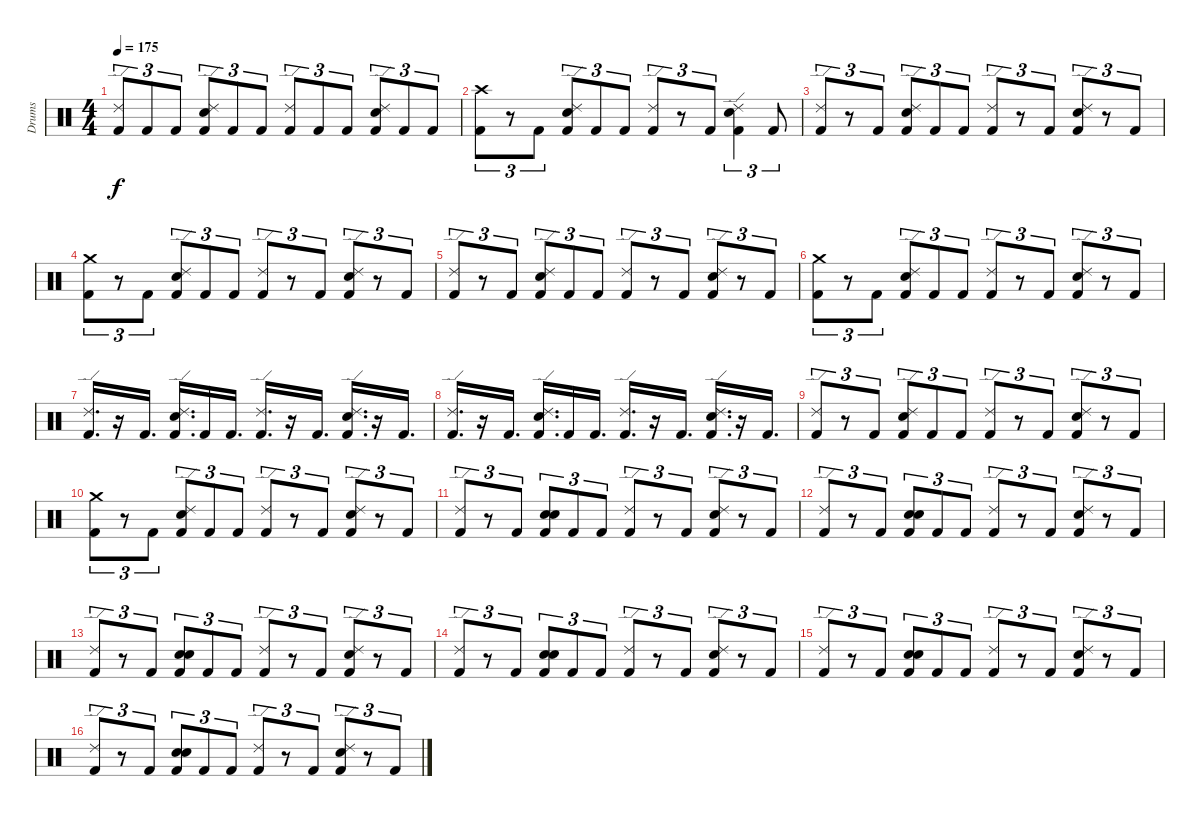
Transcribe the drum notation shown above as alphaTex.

\track ("Drums" "Drums") {instrument percussion}
\staff {score}
\articulation defaults
\ts (4 4)
\tempo 175
\clef neutral
\ks c
("Ride (edge) 2" "Kick (hit) 2").8{tu (3 2) dy f} "Kick (hit) 2".8{tu (3 2)} "Kick (hit) 2".8{tu (3 2)} ("Ride (edge) 2" "Electric Snare (hit)" "Kick (hit) 2").8{tu (3 2)} "Kick (hit) 2".8{tu (3 2)} "Kick (hit) 2".8{tu (3 2)} ("Ride (edge) 2" "Kick (hit) 2").8{tu (3 2)} "Kick (hit) 2".8{tu (3 2)} "Kick (hit) 2".8{tu (3 2)} ("Ride (edge) 2" "Electric Snare (hit)" "Kick (hit) 2").8{tu (3 2)} "Kick (hit) 2".8{tu (3 2)} "Kick (hit) 2".8{tu (3 2)} |
("Crash high (hit)" "Kick (hit) 2").8{tu (3 2)} r.8{tu (3 2)} "Kick (hit) 2".8{tu (3 2)} ("Kick (hit) 2" "Ride (edge) 2" "Electric Snare (hit)").8{tu (3 2)} "Kick (hit) 2".8{tu (3 2)} "Kick (hit) 2".8{tu (3 2)} ("Kick (hit) 2" "Ride (edge) 2").8{tu (3 2)} r.8{tu (3 2)} "Kick (hit) 2".8{tu (3 2)} ("Kick (hit) 2" "Electric Snare (hit)" "Ride (edge) 2").4{tu (3 2)} "Kick (hit) 2".8{tu (3 2)} |
("Ride (edge) 2" "Kick (hit) 2").8{tu (3 2)} r.8{tu (3 2)} "Kick (hit) 2".8{tu (3 2)} ("Electric Snare (hit)" "Ride (edge) 2" "Kick (hit) 2").8{tu (3 2)} "Kick (hit) 2".8{tu (3 2)} "Kick (hit) 2".8{tu (3 2)} ("Ride (edge) 2" "Kick (hit) 2").8{tu (3 2)} r.8{tu (3 2)} "Kick (hit) 2".8{tu (3 2)} ("Electric Snare (hit)" "Ride (edge) 2" "Kick (hit) 2").8{tu (3 2)} r.8{tu (3 2)} "Kick (hit) 2".8{tu (3 2)} |
("Crash medium (hit)" "Kick (hit) 2").8{tu (3 2)} r.8{tu (3 2)} "Kick (hit) 2".8{tu (3 2)} ("Electric Snare (hit)" "Ride (edge) 2" "Kick (hit) 2").8{tu (3 2)} "Kick (hit) 2".8{tu (3 2)} "Kick (hit) 2".8{tu (3 2)} ("Ride (edge) 2" "Kick (hit) 2").8{tu (3 2)} r.8{tu (3 2)} "Kick (hit) 2".8{tu (3 2)} ("Electric Snare (hit)" "Ride (edge) 2" "Kick (hit) 2").8{tu (3 2)} r.8{tu (3 2)} "Kick (hit) 2".8{tu (3 2)} |
("Ride (edge) 2" "Kick (hit) 2").8{tu (3 2)} r.8{tu (3 2)} "Kick (hit) 2".8{tu (3 2)} ("Electric Snare (hit)" "Ride (edge) 2" "Kick (hit) 2").8{tu (3 2)} "Kick (hit) 2".8{tu (3 2)} "Kick (hit) 2".8{tu (3 2)} ("Ride (edge) 2" "Kick (hit) 2").8{tu (3 2)} r.8{tu (3 2)} "Kick (hit) 2".8{tu (3 2)} ("Electric Snare (hit)" "Ride (edge) 2" "Kick (hit) 2").8{tu (3 2)} r.8{tu (3 2)} "Kick (hit) 2".8{tu (3 2)} |
("Crash medium (hit)" "Kick (hit) 2").8{tu (3 2)} r.8{tu (3 2)} "Kick (hit) 2".8{tu (3 2)} ("Electric Snare (hit)" "Ride (edge) 2" "Kick (hit) 2").8{tu (3 2)} "Kick (hit) 2".8{tu (3 2)} "Kick (hit) 2".8{tu (3 2)} ("Ride (edge) 2" "Kick (hit) 2").8{tu (3 2)} r.8{tu (3 2)} "Kick (hit) 2".8{tu (3 2)} ("Electric Snare (hit)" "Ride (edge) 2" "Kick (hit) 2").8{tu (3 2)} r.8{tu (3 2)} "Kick (hit) 2".8{tu (3 2)} |
("Ride (edge) 2" "Kick (hit) 2").16{d} r.16 "Kick (hit) 2".16{d} ("Electric Snare (hit)" "Ride (edge) 2" "Kick (hit) 2").16{d} "Kick (hit) 2".16 "Kick (hit) 2".16{d} ("Ride (edge) 2" "Kick (hit) 2").16{d} r.16 "Kick (hit) 2".16{d} ("Electric Snare (hit)" "Ride (edge) 2" "Kick (hit) 2").16{d} r.16 "Kick (hit) 2".16{d} |
("Ride (edge) 2" "Kick (hit) 2").16{d} r.16 "Kick (hit) 2".16{d} ("Electric Snare (hit)" "Ride (edge) 2" "Kick (hit) 2").16{d} "Kick (hit) 2".16 "Kick (hit) 2".16{d} ("Ride (edge) 2" "Kick (hit) 2").16{d} r.16 "Kick (hit) 2".16{d} ("Electric Snare (hit)" "Ride (edge) 2" "Kick (hit) 2").16{d} r.16 "Kick (hit) 2".16{d} |
("Ride (edge) 2" "Kick (hit) 2").8{tu (3 2)} r.8{tu (3 2)} "Kick (hit) 2".8{tu (3 2)} ("Electric Snare (hit)" "Ride (edge) 2" "Kick (hit) 2").8{tu (3 2)} "Kick (hit) 2".8{tu (3 2)} "Kick (hit) 2".8{tu (3 2)} ("Ride (edge) 2" "Kick (hit) 2").8{tu (3 2)} r.8{tu (3 2)} "Kick (hit) 2".8{tu (3 2)} ("Electric Snare (hit)" "Ride (edge) 2" "Kick (hit) 2").8{tu (3 2)} r.8{tu (3 2)} "Kick (hit) 2".8{tu (3 2)} |
("Crash medium (hit)" "Kick (hit) 2").8{tu (3 2)} r.8{tu (3 2)} "Kick (hit) 2".8{tu (3 2)} ("Electric Snare (hit)" "Ride (edge) 2" "Kick (hit) 2").8{tu (3 2)} "Kick (hit) 2".8{tu (3 2)} "Kick (hit) 2".8{tu (3 2)} ("Ride (edge) 2" "Kick (hit) 2").8{tu (3 2)} r.8{tu (3 2)} "Kick (hit) 2".8{tu (3 2)} ("Electric Snare (hit)" "Ride (edge) 2" "Kick (hit) 2").8{tu (3 2)} r.8{tu (3 2)} "Kick (hit) 2".8{tu (3 2)} |
("Ride (edge) 2" "Kick (hit) 2").8{tu (3 2)} r.8{tu (3 2)} "Kick (hit) 2".8{tu (3 2)} ("Electric Snare (hit)" "Electric Snare (hit)" "Kick (hit) 2").8{tu (3 2)} "Kick (hit) 2".8{tu (3 2)} "Kick (hit) 2".8{tu (3 2)} ("Ride (edge) 2" "Kick (hit) 2").8{tu (3 2)} r.8{tu (3 2)} "Kick (hit) 2".8{tu (3 2)} ("Electric Snare (hit)" "Kick (hit) 2" "Ride (edge) 2").8{tu (3 2)} r.8{tu (3 2)} "Kick (hit) 2".8{tu (3 2)} |
("Ride (edge) 2" "Kick (hit) 2").8{tu (3 2)} r.8{tu (3 2)} "Kick (hit) 2".8{tu (3 2)} ("Electric Snare (hit)" "Electric Snare (hit)" "Kick (hit) 2").8{tu (3 2)} "Kick (hit) 2".8{tu (3 2)} "Kick (hit) 2".8{tu (3 2)} ("Ride (edge) 2" "Kick (hit) 2").8{tu (3 2)} r.8{tu (3 2)} "Kick (hit) 2".8{tu (3 2)} ("Electric Snare (hit)" "Kick (hit) 2" "Ride (edge) 2").8{tu (3 2)} r.8{tu (3 2)} "Kick (hit) 2".8{tu (3 2)} |
("Ride (edge) 2" "Kick (hit) 2").8{tu (3 2)} r.8{tu (3 2)} "Kick (hit) 2".8{tu (3 2)} ("Electric Snare (hit)" "Electric Snare (hit)" "Kick (hit) 2").8{tu (3 2)} "Kick (hit) 2".8{tu (3 2)} "Kick (hit) 2".8{tu (3 2)} ("Ride (edge) 2" "Kick (hit) 2").8{tu (3 2)} r.8{tu (3 2)} "Kick (hit) 2".8{tu (3 2)} ("Electric Snare (hit)" "Kick (hit) 2" "Ride (edge) 2").8{tu (3 2)} r.8{tu (3 2)} "Kick (hit) 2".8{tu (3 2)} |
("Ride (edge) 2" "Kick (hit) 2").8{tu (3 2)} r.8{tu (3 2)} "Kick (hit) 2".8{tu (3 2)} ("Electric Snare (hit)" "Electric Snare (hit)" "Kick (hit) 2").8{tu (3 2)} "Kick (hit) 2".8{tu (3 2)} "Kick (hit) 2".8{tu (3 2)} ("Ride (edge) 2" "Kick (hit) 2").8{tu (3 2)} r.8{tu (3 2)} "Kick (hit) 2".8{tu (3 2)} ("Electric Snare (hit)" "Kick (hit) 2" "Ride (edge) 2").8{tu (3 2)} r.8{tu (3 2)} "Kick (hit) 2".8{tu (3 2)} |
("Ride (edge) 2" "Kick (hit) 2").8{tu (3 2)} r.8{tu (3 2)} "Kick (hit) 2".8{tu (3 2)} ("Electric Snare (hit)" "Electric Snare (hit)" "Kick (hit) 2").8{tu (3 2)} "Kick (hit) 2".8{tu (3 2)} "Kick (hit) 2".8{tu (3 2)} ("Ride (edge) 2" "Kick (hit) 2").8{tu (3 2)} r.8{tu (3 2)} "Kick (hit) 2".8{tu (3 2)} ("Electric Snare (hit)" "Kick (hit) 2" "Ride (edge) 2").8{tu (3 2)} r.8{tu (3 2)} "Kick (hit) 2".8{tu (3 2)} |
("Ride (edge) 2" "Kick (hit) 2").8{tu (3 2)} r.8{tu (3 2)} "Kick (hit) 2".8{tu (3 2)} ("Electric Snare (hit)" "Electric Snare (hit)" "Kick (hit) 2").8{tu (3 2)} "Kick (hit) 2".8{tu (3 2)} "Kick (hit) 2".8{tu (3 2)} ("Ride (edge) 2" "Kick (hit) 2").8{tu (3 2)} r.8{tu (3 2)} "Kick (hit) 2".8{tu (3 2)} ("Electric Snare (hit)" "Kick (hit) 2" "Ride (edge) 2").8{tu (3 2)} r.8{tu (3 2)} "Kick (hit) 2".8{tu (3 2)}
